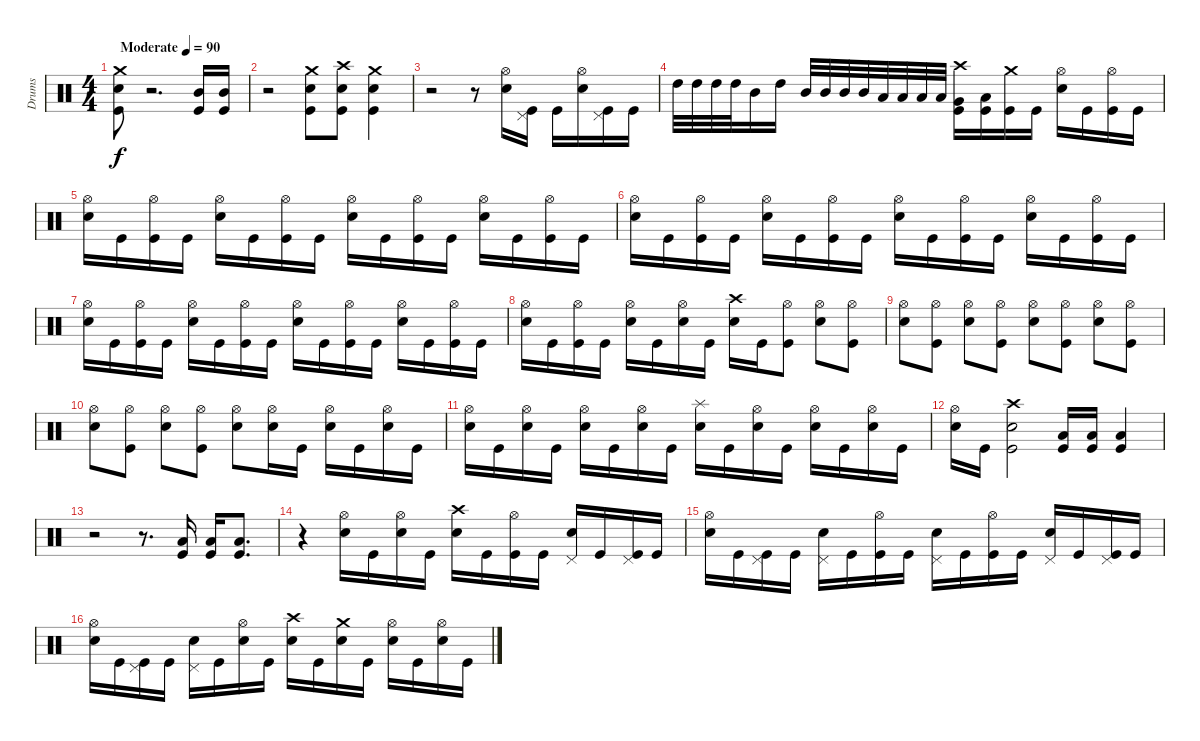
\track ("Drums" "Drums") {instrument percussion}
\staff {score}
\articulation defaults
\ts (4 4)
\tempo (90 "Moderate")
\clef neutral
\ks c
("Crash medium (hit)" "Electric Snare (hit)" "Kick (hit)").8{dy f} r.2{d} ("Mid Tom (hit)" "Kick (hit)").16 ("Mid Tom (hit)" "Kick (hit)").16 |
r.2 ("Crash medium (hit)" "Electric Snare (hit)" "Kick (hit)").8 ("Crash high (hit)" "Electric Snare (hit)" "Kick (hit)").8 ("Crash medium (hit)" "Electric Snare (hit)" "Kick (hit)").4 |
r.2 r.8 ("Hi-Hat (open)" "Electric Snare (hit)").16 ("Pedal Hi-Hat (hit)" "Kick (hit)").16 "Kick (hit)".16 ("Hi-Hat (open)" "Electric Snare (hit)").16 ("Pedal Hi-Hat (hit)" "Kick (hit)").16 "Kick (hit)".16 |
"High Tom (hit)".32 "High Tom (hit)".32 "High Tom (hit)".32 "High Tom (hit)".32 "Mid Tom (hit)".16 "High Tom (hit)".16 "Mid Tom (hit)".32 "Mid Tom (hit)".32 "Mid Tom (hit)".32 "Mid Tom (hit)".32 "Low Tom (hit)".32 "Low Tom (hit)".32 "Low Tom (hit)".32 "Low Tom (hit)".32 ("Crash high (hit)" "Very Low Tom (hit)" "Kick (hit)").16 ("Low Tom (hit)" "Kick (hit)").16 ("Crash medium (hit)" "Kick (hit)").16 "Kick (hit)".16 ("Hi-Hat (open)" "Electric Snare (hit)").16 "Kick (hit)".16 ("Hi-Hat (open)" "Kick (hit)").16 "Kick (hit)".16 |
("Hi-Hat (open)" "Electric Snare (hit)").16 "Kick (hit)".16 ("Hi-Hat (open)" "Kick (hit)").16 "Kick (hit)".16 ("Hi-Hat (open)" "Electric Snare (hit)").16 "Kick (hit)".16 ("Hi-Hat (open)" "Kick (hit)").16 "Kick (hit)".16 ("Hi-Hat (open)" "Electric Snare (hit)").16 "Kick (hit)".16 ("Hi-Hat (open)" "Kick (hit)").16 "Kick (hit)".16 ("Hi-Hat (open)" "Electric Snare (hit)").16 "Kick (hit)".16 ("Hi-Hat (open)" "Kick (hit)").16 "Kick (hit)".16 |
("Hi-Hat (open)" "Electric Snare (hit)").16 "Kick (hit)".16 ("Hi-Hat (open)" "Kick (hit)").16 "Kick (hit)".16 ("Hi-Hat (open)" "Electric Snare (hit)").16 "Kick (hit)".16 ("Hi-Hat (open)" "Kick (hit)").16 "Kick (hit)".16 ("Hi-Hat (open)" "Electric Snare (hit)").16 "Kick (hit)".16 ("Hi-Hat (open)" "Kick (hit)").16 "Kick (hit)".16 ("Hi-Hat (open)" "Electric Snare (hit)").16 "Kick (hit)".16 ("Hi-Hat (open)" "Kick (hit)").16 "Kick (hit)".16 |
("Hi-Hat (open)" "Electric Snare (hit)").16 "Kick (hit)".16 ("Hi-Hat (open)" "Kick (hit)").16 "Kick (hit)".16 ("Hi-Hat (open)" "Electric Snare (hit)").16 "Kick (hit)".16 ("Hi-Hat (open)" "Kick (hit)").16 "Kick (hit)".16 ("Hi-Hat (open)" "Electric Snare (hit)").16 "Kick (hit)".16 ("Hi-Hat (open)" "Kick (hit)").16 "Kick (hit)".16 ("Hi-Hat (open)" "Electric Snare (hit)").16 "Kick (hit)".16 ("Hi-Hat (open)" "Kick (hit)").16 "Kick (hit)".16 |
("Hi-Hat (open)" "Electric Snare (hit)").16 "Kick (hit)".16 ("Hi-Hat (open)" "Kick (hit)").16 "Kick (hit)".16 ("Hi-Hat (open)" "Electric Snare (hit)").16 "Kick (hit)".16 ("Hi-Hat (open)" "Electric Snare (hit)").16 "Kick (hit)".16 ("Crash high (hit)" "Electric Snare (hit)").16 "Kick (hit)".16 ("Hi-Hat (open)" "Kick (hit)").8 ("Hi-Hat (open)" "Electric Snare (hit)").8 ("Hi-Hat (open)" "Kick (hit)").8 |
("Hi-Hat (open)" "Electric Snare (hit)").8 ("Hi-Hat (open)" "Kick (hit)").8 ("Hi-Hat (open)" "Electric Snare (hit)").8 ("Hi-Hat (open)" "Kick (hit)").8 ("Hi-Hat (open)" "Electric Snare (hit)").8 ("Hi-Hat (open)" "Kick (hit)").8 ("Hi-Hat (open)" "Electric Snare (hit)").8 ("Hi-Hat (open)" "Kick (hit)").8 |
("Hi-Hat (open)" "Electric Snare (hit)").8 ("Hi-Hat (open)" "Kick (hit)").8 ("Hi-Hat (open)" "Electric Snare (hit)").8 ("Hi-Hat (open)" "Kick (hit)").8 ("Hi-Hat (open)" "Electric Snare (hit)").8 ("Hi-Hat (open)" "Electric Snare (hit)").16 "Kick (hit)".16 ("Hi-Hat (open)" "Electric Snare (hit)").16 "Kick (hit)".16 ("Hi-Hat (open)" "Electric Snare (hit)").16 "Kick (hit)".16 |
("Hi-Hat (open)" "Electric Snare (hit)").16 "Kick (hit)".16 ("Hi-Hat (open)" "Electric Snare (hit)").16 "Kick (hit)".16 ("Hi-Hat (open)" "Electric Snare (hit)").16 "Kick (hit)".16 ("Hi-Hat (open)" "Electric Snare (hit)").16 "Kick (hit)".16 ("Splash (hit)" "Electric Snare (hit)").16 "Kick (hit)".16 ("Hi-Hat (open)" "Electric Snare (hit)").16 "Kick (hit)".16 ("Hi-Hat (open)" "Electric Snare (hit)").16 "Kick (hit)".16 ("Hi-Hat (open)" "Electric Snare (hit)").16 "Kick (hit)".16 |
("Hi-Hat (open)" "Electric Snare (hit)").16 "Kick (hit)".16 ("Crash high (hit)" "Electric Snare (hit)" "Kick (hit)").2 ("Low Tom (hit)" "Kick (hit)").16 ("Low Tom (hit)" "Kick (hit)").16 ("Low Tom (hit)" "Kick (hit)").4 |
r.2 r.8{d} ("Low Tom (hit)" "Kick (hit)").16 ("Low Tom (hit)" "Kick (hit)").16 ("Low Tom (hit)" "Kick (hit)").8{d} |
r.4 ("Hi-Hat (open)" "Electric Snare (hit)").16 "Kick (hit)".16 ("Hi-Hat (open)" "Electric Snare (hit)").16 "Kick (hit)".16 ("Crash high (hit)" "Electric Snare (hit)").16 "Kick (hit)".16 ("Hi-Hat (open)" "Kick (hit)").16 "Kick (hit)".16 ("Pedal Hi-Hat (hit)" "Electric Snare (hit)").16 "Kick (hit)".16 ("Pedal Hi-Hat (hit)" "Kick (hit)").16 "Kick (hit)".16 |
("Hi-Hat (open)" "Electric Snare (hit)").16 "Kick (hit)".16 ("Pedal Hi-Hat (hit)" "Kick (hit)").16 "Kick (hit)".16 ("Pedal Hi-Hat (hit)" "Electric Snare (hit)").16 "Kick (hit)".16 ("Hi-Hat (open)" "Kick (hit)").16 "Kick (hit)".16 ("Pedal Hi-Hat (hit)" "Electric Snare (hit)").16 "Kick (hit)".16 ("Hi-Hat (open)" "Kick (hit)").16 "Kick (hit)".16 ("Pedal Hi-Hat (hit)" "Electric Snare (hit)").16 "Kick (hit)".16 ("Pedal Hi-Hat (hit)" "Kick (hit)").16 "Kick (hit)".16 |
("Hi-Hat (open)" "Electric Snare (hit)").16 "Kick (hit)".16 ("Pedal Hi-Hat (hit)" "Kick (hit)").16 "Kick (hit)".16 ("Pedal Hi-Hat (hit)" "Electric Snare (hit)").16 "Kick (hit)".16 ("Hi-Hat (open)" "Electric Snare (hit)").16 "Kick (hit)".16 ("Crash high (hit)" "Electric Snare (hit)").16 "Kick (hit)".16 ("Crash medium (hit)" "Electric Snare (hit)").16 "Kick (hit)".16 ("Hi-Hat (open)" "Electric Snare (hit)").16 "Kick (hit)".16 ("Hi-Hat (open)" "Electric Snare (hit)").16 "Kick (hit)".16
